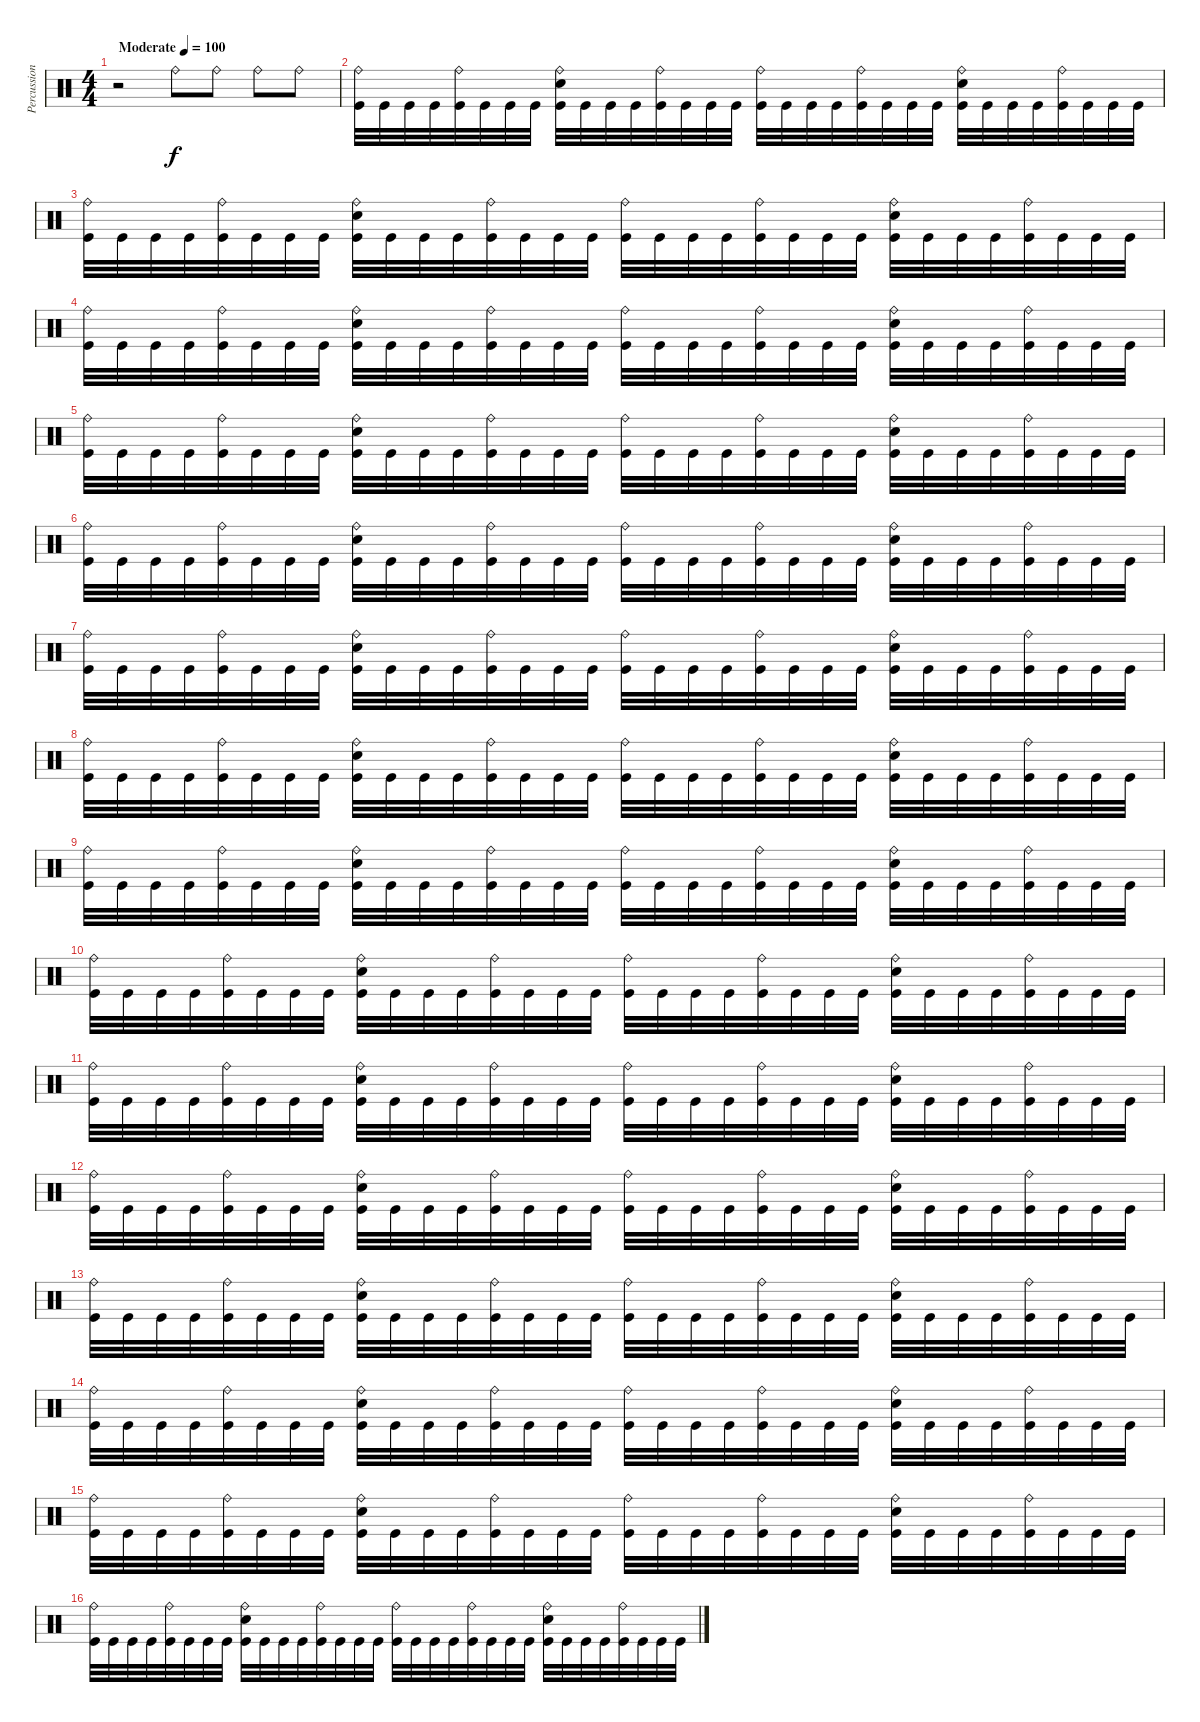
\track ("Percussions" "Percussion") {instrument percussion}
\staff {score}
\articulation defaults
\ts (4 4)
\tempo (100 "Moderate")
\clef neutral
\ks c
r.2{dy f} "Ride (bell)".8 "Ride (bell)".8 "Ride (bell)".8 "Ride (bell)".8 |
("Ride (bell)" "Kick (hit)").32 "Kick (hit)".32 "Kick (hit)".32 "Kick (hit)".32 ("Ride (bell)" "Kick (hit)").32 "Kick (hit)".32 "Kick (hit)".32 "Kick (hit)".32 ("Ride (bell)" "Electric Snare (hit)" "Kick (hit)").32 "Kick (hit)".32 "Kick (hit)".32 "Kick (hit)".32 ("Ride (bell)" "Kick (hit)").32 "Kick (hit)".32 "Kick (hit)".32 "Kick (hit)".32 ("Ride (bell)" "Kick (hit)").32 "Kick (hit)".32 "Kick (hit)".32 "Kick (hit)".32 ("Ride (bell)" "Kick (hit)").32 "Kick (hit)".32 "Kick (hit)".32 "Kick (hit)".32 ("Ride (bell)" "Electric Snare (hit)" "Kick (hit)").32 "Kick (hit)".32 "Kick (hit)".32 "Kick (hit)".32 ("Ride (bell)" "Kick (hit)").32 "Kick (hit)".32 "Kick (hit)".32 "Kick (hit)".32 |
("Ride (bell)" "Kick (hit)").32 "Kick (hit)".32 "Kick (hit)".32 "Kick (hit)".32 ("Ride (bell)" "Kick (hit)").32 "Kick (hit)".32 "Kick (hit)".32 "Kick (hit)".32 ("Ride (bell)" "Electric Snare (hit)" "Kick (hit)").32 "Kick (hit)".32 "Kick (hit)".32 "Kick (hit)".32 ("Ride (bell)" "Kick (hit)").32 "Kick (hit)".32 "Kick (hit)".32 "Kick (hit)".32 ("Ride (bell)" "Kick (hit)").32 "Kick (hit)".32 "Kick (hit)".32 "Kick (hit)".32 ("Ride (bell)" "Kick (hit)").32 "Kick (hit)".32 "Kick (hit)".32 "Kick (hit)".32 ("Ride (bell)" "Electric Snare (hit)" "Kick (hit)").32 "Kick (hit)".32 "Kick (hit)".32 "Kick (hit)".32 ("Ride (bell)" "Kick (hit)").32 "Kick (hit)".32 "Kick (hit)".32 "Kick (hit)".32 |
("Ride (bell)" "Kick (hit)").32 "Kick (hit)".32 "Kick (hit)".32 "Kick (hit)".32 ("Ride (bell)" "Kick (hit)").32 "Kick (hit)".32 "Kick (hit)".32 "Kick (hit)".32 ("Ride (bell)" "Electric Snare (hit)" "Kick (hit)").32 "Kick (hit)".32 "Kick (hit)".32 "Kick (hit)".32 ("Ride (bell)" "Kick (hit)").32 "Kick (hit)".32 "Kick (hit)".32 "Kick (hit)".32 ("Ride (bell)" "Kick (hit)").32 "Kick (hit)".32 "Kick (hit)".32 "Kick (hit)".32 ("Ride (bell)" "Kick (hit)").32 "Kick (hit)".32 "Kick (hit)".32 "Kick (hit)".32 ("Ride (bell)" "Electric Snare (hit)" "Kick (hit)").32 "Kick (hit)".32 "Kick (hit)".32 "Kick (hit)".32 ("Ride (bell)" "Kick (hit)").32 "Kick (hit)".32 "Kick (hit)".32 "Kick (hit)".32 |
("Ride (bell)" "Kick (hit)").32 "Kick (hit)".32 "Kick (hit)".32 "Kick (hit)".32 ("Ride (bell)" "Kick (hit)").32 "Kick (hit)".32 "Kick (hit)".32 "Kick (hit)".32 ("Ride (bell)" "Electric Snare (hit)" "Kick (hit)").32 "Kick (hit)".32 "Kick (hit)".32 "Kick (hit)".32 ("Ride (bell)" "Kick (hit)").32 "Kick (hit)".32 "Kick (hit)".32 "Kick (hit)".32 ("Ride (bell)" "Kick (hit)").32 "Kick (hit)".32 "Kick (hit)".32 "Kick (hit)".32 ("Ride (bell)" "Kick (hit)").32 "Kick (hit)".32 "Kick (hit)".32 "Kick (hit)".32 ("Ride (bell)" "Electric Snare (hit)" "Kick (hit)").32 "Kick (hit)".32 "Kick (hit)".32 "Kick (hit)".32 ("Ride (bell)" "Kick (hit)").32 "Kick (hit)".32 "Kick (hit)".32 "Kick (hit)".32 |
("Ride (bell)" "Kick (hit)").32 "Kick (hit)".32 "Kick (hit)".32 "Kick (hit)".32 ("Ride (bell)" "Kick (hit)").32 "Kick (hit)".32 "Kick (hit)".32 "Kick (hit)".32 ("Ride (bell)" "Electric Snare (hit)" "Kick (hit)").32 "Kick (hit)".32 "Kick (hit)".32 "Kick (hit)".32 ("Ride (bell)" "Kick (hit)").32 "Kick (hit)".32 "Kick (hit)".32 "Kick (hit)".32 ("Ride (bell)" "Kick (hit)").32 "Kick (hit)".32 "Kick (hit)".32 "Kick (hit)".32 ("Ride (bell)" "Kick (hit)").32 "Kick (hit)".32 "Kick (hit)".32 "Kick (hit)".32 ("Ride (bell)" "Electric Snare (hit)" "Kick (hit)").32 "Kick (hit)".32 "Kick (hit)".32 "Kick (hit)".32 ("Ride (bell)" "Kick (hit)").32 "Kick (hit)".32 "Kick (hit)".32 "Kick (hit)".32 |
("Ride (bell)" "Kick (hit)").32 "Kick (hit)".32 "Kick (hit)".32 "Kick (hit)".32 ("Ride (bell)" "Kick (hit)").32 "Kick (hit)".32 "Kick (hit)".32 "Kick (hit)".32 ("Ride (bell)" "Electric Snare (hit)" "Kick (hit)").32 "Kick (hit)".32 "Kick (hit)".32 "Kick (hit)".32 ("Ride (bell)" "Kick (hit)").32 "Kick (hit)".32 "Kick (hit)".32 "Kick (hit)".32 ("Ride (bell)" "Kick (hit)").32 "Kick (hit)".32 "Kick (hit)".32 "Kick (hit)".32 ("Ride (bell)" "Kick (hit)").32 "Kick (hit)".32 "Kick (hit)".32 "Kick (hit)".32 ("Ride (bell)" "Electric Snare (hit)" "Kick (hit)").32 "Kick (hit)".32 "Kick (hit)".32 "Kick (hit)".32 ("Ride (bell)" "Kick (hit)").32 "Kick (hit)".32 "Kick (hit)".32 "Kick (hit)".32 |
("Ride (bell)" "Kick (hit)").32 "Kick (hit)".32 "Kick (hit)".32 "Kick (hit)".32 ("Ride (bell)" "Kick (hit)").32 "Kick (hit)".32 "Kick (hit)".32 "Kick (hit)".32 ("Ride (bell)" "Electric Snare (hit)" "Kick (hit)").32 "Kick (hit)".32 "Kick (hit)".32 "Kick (hit)".32 ("Ride (bell)" "Kick (hit)").32 "Kick (hit)".32 "Kick (hit)".32 "Kick (hit)".32 ("Ride (bell)" "Kick (hit)").32 "Kick (hit)".32 "Kick (hit)".32 "Kick (hit)".32 ("Ride (bell)" "Kick (hit)").32 "Kick (hit)".32 "Kick (hit)".32 "Kick (hit)".32 ("Ride (bell)" "Electric Snare (hit)" "Kick (hit)").32 "Kick (hit)".32 "Kick (hit)".32 "Kick (hit)".32 ("Ride (bell)" "Kick (hit)").32 "Kick (hit)".32 "Kick (hit)".32 "Kick (hit)".32 |
("Ride (bell)" "Kick (hit)").32 "Kick (hit)".32 "Kick (hit)".32 "Kick (hit)".32 ("Ride (bell)" "Kick (hit)").32 "Kick (hit)".32 "Kick (hit)".32 "Kick (hit)".32 ("Ride (bell)" "Electric Snare (hit)" "Kick (hit)").32 "Kick (hit)".32 "Kick (hit)".32 "Kick (hit)".32 ("Ride (bell)" "Kick (hit)").32 "Kick (hit)".32 "Kick (hit)".32 "Kick (hit)".32 ("Ride (bell)" "Kick (hit)").32 "Kick (hit)".32 "Kick (hit)".32 "Kick (hit)".32 ("Ride (bell)" "Kick (hit)").32 "Kick (hit)".32 "Kick (hit)".32 "Kick (hit)".32 ("Ride (bell)" "Electric Snare (hit)" "Kick (hit)").32 "Kick (hit)".32 "Kick (hit)".32 "Kick (hit)".32 ("Ride (bell)" "Kick (hit)").32 "Kick (hit)".32 "Kick (hit)".32 "Kick (hit)".32 |
("Ride (bell)" "Kick (hit)").32 "Kick (hit)".32 "Kick (hit)".32 "Kick (hit)".32 ("Ride (bell)" "Kick (hit)").32 "Kick (hit)".32 "Kick (hit)".32 "Kick (hit)".32 ("Ride (bell)" "Electric Snare (hit)" "Kick (hit)").32 "Kick (hit)".32 "Kick (hit)".32 "Kick (hit)".32 ("Ride (bell)" "Kick (hit)").32 "Kick (hit)".32 "Kick (hit)".32 "Kick (hit)".32 ("Ride (bell)" "Kick (hit)").32 "Kick (hit)".32 "Kick (hit)".32 "Kick (hit)".32 ("Ride (bell)" "Kick (hit)").32 "Kick (hit)".32 "Kick (hit)".32 "Kick (hit)".32 ("Ride (bell)" "Electric Snare (hit)" "Kick (hit)").32 "Kick (hit)".32 "Kick (hit)".32 "Kick (hit)".32 ("Ride (bell)" "Kick (hit)").32 "Kick (hit)".32 "Kick (hit)".32 "Kick (hit)".32 |
("Ride (bell)" "Kick (hit)").32 "Kick (hit)".32 "Kick (hit)".32 "Kick (hit)".32 ("Ride (bell)" "Kick (hit)").32 "Kick (hit)".32 "Kick (hit)".32 "Kick (hit)".32 ("Ride (bell)" "Electric Snare (hit)" "Kick (hit)").32 "Kick (hit)".32 "Kick (hit)".32 "Kick (hit)".32 ("Ride (bell)" "Kick (hit)").32 "Kick (hit)".32 "Kick (hit)".32 "Kick (hit)".32 ("Ride (bell)" "Kick (hit)").32 "Kick (hit)".32 "Kick (hit)".32 "Kick (hit)".32 ("Ride (bell)" "Kick (hit)").32 "Kick (hit)".32 "Kick (hit)".32 "Kick (hit)".32 ("Ride (bell)" "Electric Snare (hit)" "Kick (hit)").32 "Kick (hit)".32 "Kick (hit)".32 "Kick (hit)".32 ("Ride (bell)" "Kick (hit)").32 "Kick (hit)".32 "Kick (hit)".32 "Kick (hit)".32 |
("Ride (bell)" "Kick (hit)").32 "Kick (hit)".32 "Kick (hit)".32 "Kick (hit)".32 ("Ride (bell)" "Kick (hit)").32 "Kick (hit)".32 "Kick (hit)".32 "Kick (hit)".32 ("Ride (bell)" "Electric Snare (hit)" "Kick (hit)").32 "Kick (hit)".32 "Kick (hit)".32 "Kick (hit)".32 ("Ride (bell)" "Kick (hit)").32 "Kick (hit)".32 "Kick (hit)".32 "Kick (hit)".32 ("Ride (bell)" "Kick (hit)").32 "Kick (hit)".32 "Kick (hit)".32 "Kick (hit)".32 ("Ride (bell)" "Kick (hit)").32 "Kick (hit)".32 "Kick (hit)".32 "Kick (hit)".32 ("Ride (bell)" "Electric Snare (hit)" "Kick (hit)").32 "Kick (hit)".32 "Kick (hit)".32 "Kick (hit)".32 ("Ride (bell)" "Kick (hit)").32 "Kick (hit)".32 "Kick (hit)".32 "Kick (hit)".32 |
("Ride (bell)" "Kick (hit)").32 "Kick (hit)".32 "Kick (hit)".32 "Kick (hit)".32 ("Ride (bell)" "Kick (hit)").32 "Kick (hit)".32 "Kick (hit)".32 "Kick (hit)".32 ("Ride (bell)" "Electric Snare (hit)" "Kick (hit)").32 "Kick (hit)".32 "Kick (hit)".32 "Kick (hit)".32 ("Ride (bell)" "Kick (hit)").32 "Kick (hit)".32 "Kick (hit)".32 "Kick (hit)".32 ("Ride (bell)" "Kick (hit)").32 "Kick (hit)".32 "Kick (hit)".32 "Kick (hit)".32 ("Ride (bell)" "Kick (hit)").32 "Kick (hit)".32 "Kick (hit)".32 "Kick (hit)".32 ("Ride (bell)" "Electric Snare (hit)" "Kick (hit)").32 "Kick (hit)".32 "Kick (hit)".32 "Kick (hit)".32 ("Ride (bell)" "Kick (hit)").32 "Kick (hit)".32 "Kick (hit)".32 "Kick (hit)".32 |
("Ride (bell)" "Kick (hit)").32 "Kick (hit)".32 "Kick (hit)".32 "Kick (hit)".32 ("Ride (bell)" "Kick (hit)").32 "Kick (hit)".32 "Kick (hit)".32 "Kick (hit)".32 ("Ride (bell)" "Electric Snare (hit)" "Kick (hit)").32 "Kick (hit)".32 "Kick (hit)".32 "Kick (hit)".32 ("Ride (bell)" "Kick (hit)").32 "Kick (hit)".32 "Kick (hit)".32 "Kick (hit)".32 ("Ride (bell)" "Kick (hit)").32 "Kick (hit)".32 "Kick (hit)".32 "Kick (hit)".32 ("Ride (bell)" "Kick (hit)").32 "Kick (hit)".32 "Kick (hit)".32 "Kick (hit)".32 ("Ride (bell)" "Electric Snare (hit)" "Kick (hit)").32 "Kick (hit)".32 "Kick (hit)".32 "Kick (hit)".32 ("Ride (bell)" "Kick (hit)").32 "Kick (hit)".32 "Kick (hit)".32 "Kick (hit)".32 |
("Ride (bell)" "Kick (hit)").32 "Kick (hit)".32 "Kick (hit)".32 "Kick (hit)".32 ("Ride (bell)" "Kick (hit)").32 "Kick (hit)".32 "Kick (hit)".32 "Kick (hit)".32 ("Ride (bell)" "Electric Snare (hit)" "Kick (hit)").32 "Kick (hit)".32 "Kick (hit)".32 "Kick (hit)".32 ("Ride (bell)" "Kick (hit)").32 "Kick (hit)".32 "Kick (hit)".32 "Kick (hit)".32 ("Ride (bell)" "Kick (hit)").32 "Kick (hit)".32 "Kick (hit)".32 "Kick (hit)".32 ("Ride (bell)" "Kick (hit)").32 "Kick (hit)".32 "Kick (hit)".32 "Kick (hit)".32 ("Ride (bell)" "Electric Snare (hit)" "Kick (hit)").32 "Kick (hit)".32 "Kick (hit)".32 "Kick (hit)".32 ("Ride (bell)" "Kick (hit)").32 "Kick (hit)".32 "Kick (hit)".32 "Kick (hit)".32 |
("Ride (bell)" "Kick (hit)").32 "Kick (hit)".32 "Kick (hit)".32 "Kick (hit)".32 ("Ride (bell)" "Kick (hit)").32 "Kick (hit)".32 "Kick (hit)".32 "Kick (hit)".32 ("Ride (bell)" "Electric Snare (hit)" "Kick (hit)").32 "Kick (hit)".32 "Kick (hit)".32 "Kick (hit)".32 ("Ride (bell)" "Kick (hit)").32 "Kick (hit)".32 "Kick (hit)".32 "Kick (hit)".32 ("Ride (bell)" "Kick (hit)").32 "Kick (hit)".32 "Kick (hit)".32 "Kick (hit)".32 ("Ride (bell)" "Kick (hit)").32 "Kick (hit)".32 "Kick (hit)".32 "Kick (hit)".32 ("Ride (bell)" "Electric Snare (hit)" "Kick (hit)").32 "Kick (hit)".32 "Kick (hit)".32 "Kick (hit)".32 ("Ride (bell)" "Kick (hit)").32 "Kick (hit)".32 "Kick (hit)".32 "Kick (hit)".32
